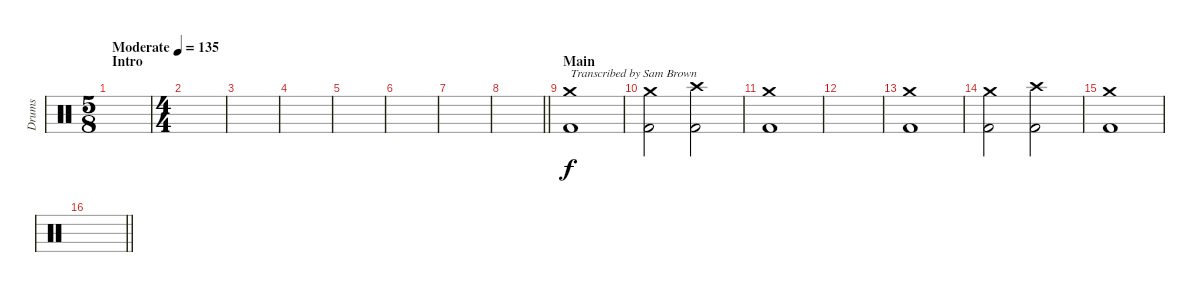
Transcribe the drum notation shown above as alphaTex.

\track ("Drums" "Drums") {instrument percussion}
\staff {score}
\articulation defaults
\ts (5 8)
\section ("" "Intro")
\tempo (135 "Moderate")
\clef neutral
\ks c
|
\ts (4 4)
|
|
|
|
|
|
\barLineRight lightlight
|
\section ("" "Main")
("Kick (hit) 2" "Crash medium (hit)").1{txt "Transcribed by Sam Brown"} |
("Kick (hit) 2" "Crash medium (hit)").2 ("Kick (hit) 2" "Crash high (hit)").2 |
("Kick (hit) 2" "Crash medium (hit)").1 |
|
("Kick (hit) 2" "Crash medium (hit)").1 |
("Kick (hit) 2" "Crash medium (hit)").2 ("Kick (hit) 2" "Crash high (hit)").2 |
("Kick (hit) 2" "Crash medium (hit)").1 |
\barLineRight lightlight
